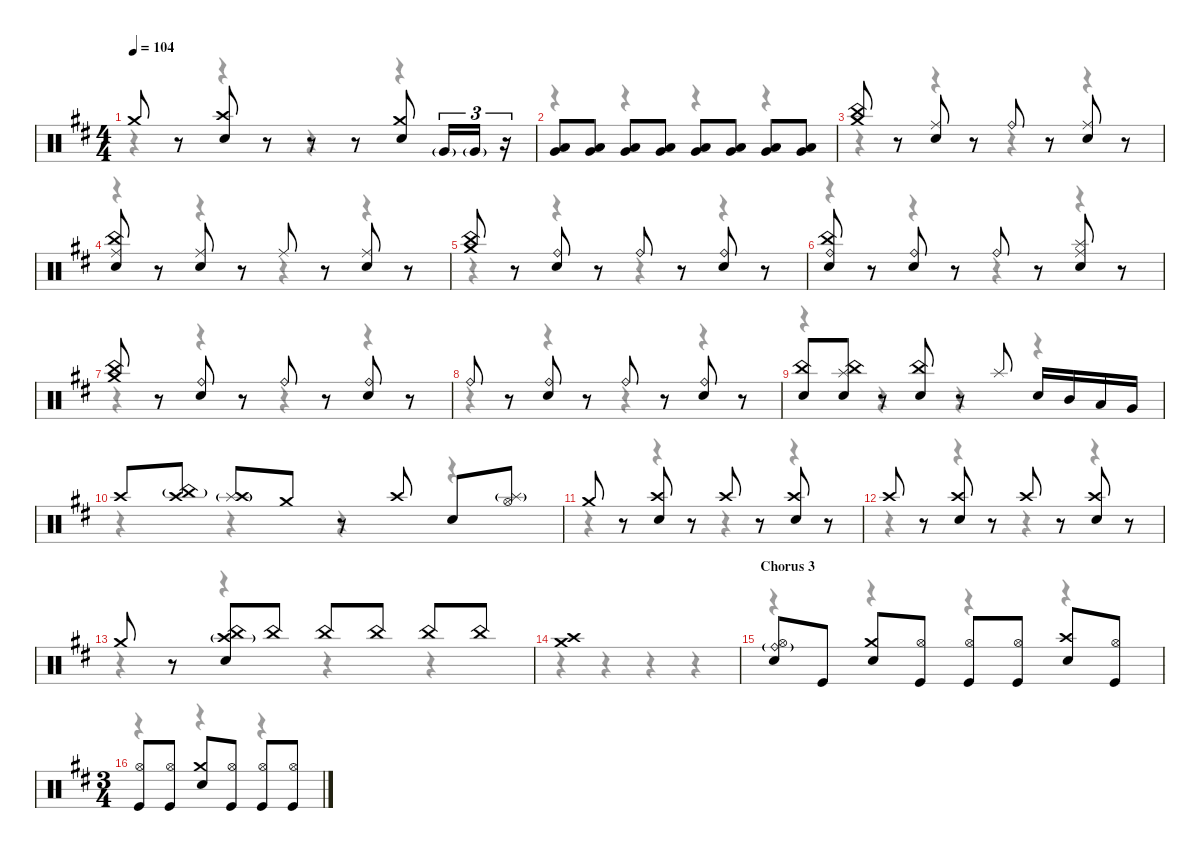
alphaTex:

\defaultSystemsLayout 4
\hideDynamics
\bracketExtendMode nobrackets
\singleTrackTrackNamePolicy hidden
\multiTrackTrackNamePolicy hidden
\firstSystemTrackNameMode fullname
\otherSystemsTrackNameOrientation horizontal
\track ("Drums" "drm.") {instrument percussion}
\staff {score}
\articulation defaults
\voice
\ts (4 4)
\tempo 104
\clef neutral
\ks bminor "Crash medium (hit)"{acc forcenatural}.8{dy mf beam Up}
r.8{beam Up} ("Crash high (hit)"{acc forcenatural} "Snare (hit) 2"{acc forcenatural}).8{beam Up} r.8{beam Up} r.8{beam Up} r.8{beam Up} ("Crash medium (hit)"{acc forcenatural} "Snare (hit) 2"{acc forcenatural}).8{beam Up} "Very Low Tom (hit)"{g acc forcenatural}.16{tu (3 2) dy f beam Up} "Very Low Tom (hit)"{g acc forcenatural}.16{tu (3 2) beam Up} r.16{tu (3 2) beam Up} |
("Low Tom (hit)"{acc forcenatural} "Very Low Tom (hit)"{acc forcenatural}).8{dy p beam Up} ("Low Tom (hit)"{acc forcenatural} "Very Low Tom (hit)"{acc forcenatural}).8{dy mp beam Up} ("Low Tom (hit)"{acc forcenatural} "Very Low Tom (hit)"{acc forcenatural}).8{beam Up} ("Low Tom (hit)"{acc forcenatural} "Very Low Tom (hit)"{acc forcenatural}).8{beam Up} ("Low Tom (hit)"{acc forcenatural} "Very Low Tom (hit)"{acc forcenatural}).8{dy mf beam Up} ("Low Tom (hit)"{acc forcenatural} "Very Low Tom (hit)"{acc forcenatural}).8{dy mp beam Up} ("Low Tom (hit)"{acc forcenatural} "Very Low Tom (hit)"{acc forcenatural}).8{beam Up} ("Low Tom (hit)"{acc forcenatural} "Very Low Tom (hit)"{acc forcenatural}).8{dy p beam Up} |
("China (hit)"{acc forcenatural} "Crash medium (hit)"{acc forcenatural}).8{beam Up} r.8{beam Up} ("Ride (middle)"{acc forcenatural} "Snare (hit) 2"{acc forcenatural}).8{dy mf beam Up} r.8{beam Up} "Ride (bell)"{acc forcenatural}.8{dy mp beam Up} r.8{beam Up} ("Ride (middle)"{acc forcenatural} "Snare (hit) 2"{acc forcenatural}).8{dy mf beam Up} r.8{beam Up} |
("China (hit)"{acc forcenatural} "Ride (middle)"{acc forcenatural} "Snare (hit) 2"{acc forcenatural}).8{dy p beam Up} r.8{beam Up} ("Ride (middle)"{acc forcenatural} "Snare (hit) 2"{acc forcenatural}).8{dy mf beam Up} r.8{beam Up} "Ride (middle)"{acc forcenatural}.8{beam Up} r.8{beam Up} ("Ride (middle)"{acc forcenatural} "Snare (hit) 2"{acc forcenatural}).8{beam Up} r.8{beam Up} |
("China (hit)"{acc forcenatural} "Crash medium (hit)"{acc forcenatural}).8{dy p beam Up} r.8{beam Up} ("Ride (bell)"{acc forcenatural} "Snare (hit) 2"{acc forcenatural}).8{dy mp beam Up} r.8{beam Up} "Ride (bell)"{acc forcenatural}.8{beam Up} r.8{beam Up} ("Ride (bell)"{acc forcenatural} "Snare (hit) 2"{acc forcenatural}).8{beam Up} r.8{beam Up} |
("China (hit)"{acc forcenatural} "Ride (bell)"{acc forcenatural} "Snare (hit) 2"{acc forcenatural}).8{dy p beam Up} r.8{beam Up} ("Ride (bell)"{acc forcenatural} "Snare (hit) 2"{acc forcenatural}).8{dy mp beam Up} r.8{beam Up} "Ride (bell)"{acc forcenatural}.8{beam Up} r.8{beam Up} ("Splash (hit)"{acc forcenatural} "Ride (middle)"{acc forcenatural} "Snare (hit) 2"{acc forcenatural}).8{beam Up} r.8{beam Up} |
("China (hit)"{acc forcenatural} "Crash medium (hit)"{acc forcenatural}).8{dy p beam Up} r.8{beam Up} ("Ride (bell)"{acc forcenatural} "Snare (hit) 2"{acc forcenatural}).8{dy mp beam Up} r.8{beam Up} "Ride (bell)"{acc forcenatural}.8{beam Up} r.8{beam Up} ("Ride (bell)"{acc forcenatural} "Snare (hit) 2"{acc forcenatural}).8{beam Up} r.8{beam Up} |
"Ride (bell)"{acc forcenatural}.8{beam Up} r.8{beam Up} ("Ride (bell)"{acc forcenatural} "Snare (hit) 2"{acc forcenatural}).8{beam Up} r.8{beam Up} "Ride (bell)"{acc forcenatural}.8{beam Up} r.8{beam Up} ("Ride (bell)"{acc forcenatural} "Snare (hit) 2"{acc forcenatural}).8{beam Up} r.8{beam Up} |
("China (hit)"{acc forcenatural} "Snare (hit) 2"{acc forcenatural}).8{dy mf beam Up} ("Splash (hit)"{acc forcenatural} "China (hit)"{acc forcenatural} "Snare (hit) 2"{acc forcenatural}).8{dy mp beam Up} r.8{beam Up} ("China (hit)"{acc forcenatural} "Snare (hit) 2"{acc forcenatural}).8{dy mf beam Up} r.8{beam Up} "Splash (hit)"{acc forcenatural}.8{beam Up} "Snare (hit) 2"{acc forcenatural}.16{dy f beam Up} "Mid Tom (hit)"{acc forcenatural}.16{beam Up} "Low Tom (hit)"{acc forcenatural}.16{beam Up} "Very Low Tom (hit)"{acc forcenatural}.16{beam Up} |
"Crash high (hit)"{acc forcenatural}.8{dy mf beam Up} ("China (hit)"{g acc forcenatural} "Crash high (hit)"{acc forcenatural}).8{dy mp beam Up} ("Splash (hit)"{g acc forcenatural} "Crash high (hit)"{acc forcenatural}).8{dy mf beam Up} "Crash medium (hit)"{acc forcenatural}.8{beam Up} r.8{beam Up} "Crash high (hit)"{acc forcenatural}.8{beam Up} "Snare (hit) 2"{acc forcenatural}.8{dy f beam Up} ("Splash (hit)"{g acc forcenatural} "Hi-Hat (open)"{acc forcenatural}).8{dy mp beam Up} |
"Crash medium (hit)"{acc forcenatural}.8{dy mf beam Up} r.8{beam Up} ("Crash high (hit)"{acc forcenatural} "Snare (hit) 2"{acc forcenatural}).8{beam Up} r.8{beam Up} "Crash high (hit)"{acc forcenatural}.8{beam Up} r.8{beam Up} ("Crash high (hit)"{acc forcenatural} "Snare (hit) 2"{acc forcenatural}).8{beam Up} r.8{beam Up} |
"Crash high (hit)"{acc forcenatural}.8{beam Up} r.8{beam Up} ("Crash high (hit)"{acc forcenatural} "Snare (hit) 2"{acc forcenatural}).8{beam Up} r.8{beam Up} "Crash high (hit)"{acc forcenatural}.8{beam Up} r.8{beam Up} ("Crash high (hit)"{acc forcenatural} "Snare (hit) 2"{acc forcenatural}).8{beam Up} r.8{beam Up} |
"Crash medium (hit)"{acc forcenatural}.8{beam Up} r.8{beam Up} ("China (hit)"{acc forcenatural} "Crash high (hit)"{g acc forcenatural} "Snare (hit) 2"{acc forcenatural}).8{dy mp beam Up} "China (hit)"{acc forcenatural}.8{beam Up} "China (hit)"{acc forcenatural}.8{beam Up} "China (hit)"{acc forcenatural}.8{beam Up} "China (hit)"{acc forcenatural}.8{dy mf beam Up} "China (hit)"{acc forcenatural}.8{beam Up} |
("Crash high (hit)"{acc forcenatural} "Crash medium (hit)"{acc forcenatural}).1{dy mp beam Up} |
\section ("" "Chorus 3")
("Ride (bell)"{g acc forcenatural} "Hi-Hat (open)"{acc forcenatural} "Snare (hit) 2"{acc forcenatural}).8{beam Up} "Kick (hit)"{acc forcenatural}.8{dy f beam Up} ("Crash medium (hit)"{acc forcenatural} "Snare (hit) 2"{acc forcenatural}).8{dy mp beam Up} ("Hi-Hat (open)"{acc forcenatural} "Kick (hit)"{acc forcenatural}).8{dy pp beam Up} ("Hi-Hat (open)"{acc forcenatural} "Kick (hit)"{acc forcenatural}).8{dy mp beam Up} ("Hi-Hat (open)"{acc forcenatural} "Kick (hit)"{acc forcenatural}).8{dy pp beam Up} ("Crash high (hit)"{acc forcenatural} "Snare (hit) 2"{acc forcenatural}).8{dy mp beam Up} ("Hi-Hat (open)"{acc forcenatural} "Kick (hit)"{acc forcenatural}).8{dy pp beam Up} |
\ts (3 4)
\beaming (8 2 2 2 2)
("Hi-Hat (open)"{acc forcenatural} "Kick (hit)"{acc forcenatural}).8{dy mp beam Up} ("Hi-Hat (open)"{acc forcenatural} "Kick (hit)"{acc forcenatural}).8{dy pp beam Up} ("Crash medium (hit)"{acc forcenatural} "Snare (hit) 2"{acc forcenatural}).8{dy mp beam Up} ("Hi-Hat (open)"{acc forcenatural} "Kick (hit)"{acc forcenatural}).8{dy pp beam Up} ("Hi-Hat (open)"{acc forcenatural} "Kick (hit)"{acc forcenatural}).8{dy mp beam Up} ("Hi-Hat (open)"{acc forcenatural} "Kick (hit)"{acc forcenatural}).8{dy pp beam Up}
\voice
\clef neutral
\ottava regular
\simile none
\ks bminor
r.4{dy mf beam Down} r.4{beam Down} r.4{beam Down} r.4{beam Down} |
r.4{beam Down} r.4{beam Down} r.4{beam Down} r.4{beam Down} |
r.4{beam Down} r.4{beam Down} r.4{beam Down} r.4{beam Down} |
r.4{beam Down} r.4{beam Down} r.4{beam Down} r.4{beam Down} |
r.4{beam Down} r.4{beam Down} r.4{beam Down} r.4{beam Down} |
r.4{beam Down} r.4{beam Down} r.4{beam Down} r.4{beam Down} |
r.4{beam Down} r.4{beam Down} r.4{beam Down} r.4{beam Down} |
r.4{beam Down} r.4{beam Down} r.4{beam Down} r.4{beam Down} |
r.4{beam Down} r.4{beam Down} r.4{beam Down} r.4{beam Down} |
r.4{beam Down} r.4{beam Down} r.4{beam Down} r.4{beam Down} |
r.4{beam Down} r.4{beam Down} r.4{beam Down} r.4{beam Down} |
r.4{beam Down} r.4{beam Down} r.4{beam Down} r.4{beam Down} |
r.4{beam Down} r.4{beam Down} r.4{beam Down} r.4{beam Down} |
r.4{beam Down} r.4{beam Down} r.4{beam Down} r.4{beam Down} |
r.4{beam Down} r.4{beam Down} r.4{beam Down} r.4{beam Down} |
r.4{beam Down} r.4{beam Down} r.4{beam Down}
